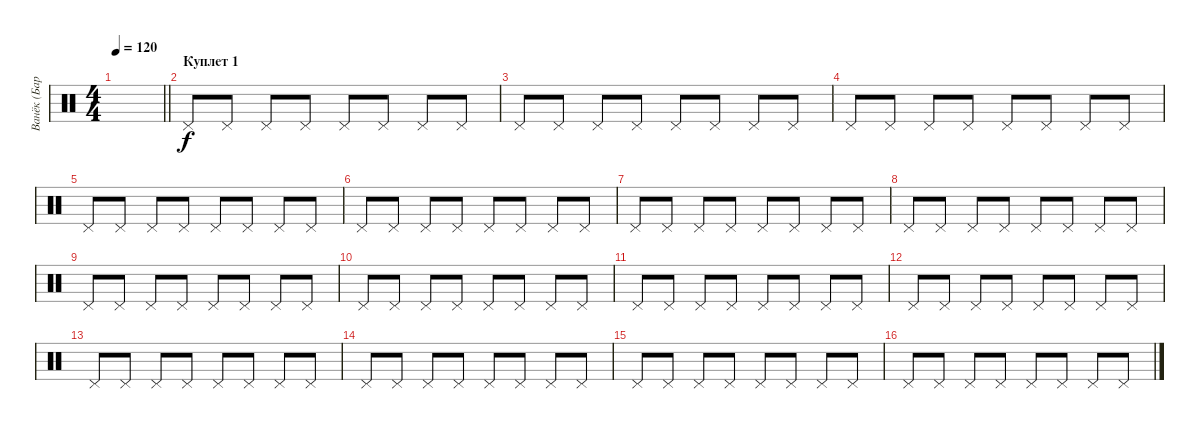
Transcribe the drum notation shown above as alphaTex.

\track ("Ванёк (Барабанщик)" "Ванёк (Бар") {instrument percussion}
\staff {score}
\articulation defaults
\ts (4 4)
\tempo 120
\clef neutral
\barLineRight lightlight
\ks c
|
\section ("" "Куплет 1")
"Pedal Hi-Hat (hit)".8 "Pedal Hi-Hat (hit)".8 "Pedal Hi-Hat (hit)".8 "Pedal Hi-Hat (hit)".8 "Pedal Hi-Hat (hit)".8 "Pedal Hi-Hat (hit)".8 "Pedal Hi-Hat (hit)".8 "Pedal Hi-Hat (hit)".8 |
"Pedal Hi-Hat (hit)".8 "Pedal Hi-Hat (hit)".8 "Pedal Hi-Hat (hit)".8 "Pedal Hi-Hat (hit)".8 "Pedal Hi-Hat (hit)".8 "Pedal Hi-Hat (hit)".8 "Pedal Hi-Hat (hit)".8 "Pedal Hi-Hat (hit)".8 |
"Pedal Hi-Hat (hit)".8 "Pedal Hi-Hat (hit)".8 "Pedal Hi-Hat (hit)".8 "Pedal Hi-Hat (hit)".8 "Pedal Hi-Hat (hit)".8 "Pedal Hi-Hat (hit)".8 "Pedal Hi-Hat (hit)".8 "Pedal Hi-Hat (hit)".8 |
"Pedal Hi-Hat (hit)".8 "Pedal Hi-Hat (hit)".8 "Pedal Hi-Hat (hit)".8 "Pedal Hi-Hat (hit)".8 "Pedal Hi-Hat (hit)".8 "Pedal Hi-Hat (hit)".8 "Pedal Hi-Hat (hit)".8 "Pedal Hi-Hat (hit)".8 |
"Pedal Hi-Hat (hit)".8 "Pedal Hi-Hat (hit)".8 "Pedal Hi-Hat (hit)".8 "Pedal Hi-Hat (hit)".8 "Pedal Hi-Hat (hit)".8 "Pedal Hi-Hat (hit)".8 "Pedal Hi-Hat (hit)".8 "Pedal Hi-Hat (hit)".8 |
"Pedal Hi-Hat (hit)".8 "Pedal Hi-Hat (hit)".8 "Pedal Hi-Hat (hit)".8 "Pedal Hi-Hat (hit)".8 "Pedal Hi-Hat (hit)".8 "Pedal Hi-Hat (hit)".8 "Pedal Hi-Hat (hit)".8 "Pedal Hi-Hat (hit)".8 |
"Pedal Hi-Hat (hit)".8 "Pedal Hi-Hat (hit)".8 "Pedal Hi-Hat (hit)".8 "Pedal Hi-Hat (hit)".8 "Pedal Hi-Hat (hit)".8 "Pedal Hi-Hat (hit)".8 "Pedal Hi-Hat (hit)".8 "Pedal Hi-Hat (hit)".8 |
"Pedal Hi-Hat (hit)".8 "Pedal Hi-Hat (hit)".8 "Pedal Hi-Hat (hit)".8 "Pedal Hi-Hat (hit)".8 "Pedal Hi-Hat (hit)".8 "Pedal Hi-Hat (hit)".8 "Pedal Hi-Hat (hit)".8 "Pedal Hi-Hat (hit)".8 |
"Pedal Hi-Hat (hit)".8 "Pedal Hi-Hat (hit)".8 "Pedal Hi-Hat (hit)".8 "Pedal Hi-Hat (hit)".8 "Pedal Hi-Hat (hit)".8 "Pedal Hi-Hat (hit)".8 "Pedal Hi-Hat (hit)".8 "Pedal Hi-Hat (hit)".8 |
"Pedal Hi-Hat (hit)".8 "Pedal Hi-Hat (hit)".8 "Pedal Hi-Hat (hit)".8 "Pedal Hi-Hat (hit)".8 "Pedal Hi-Hat (hit)".8 "Pedal Hi-Hat (hit)".8 "Pedal Hi-Hat (hit)".8 "Pedal Hi-Hat (hit)".8 |
"Pedal Hi-Hat (hit)".8 "Pedal Hi-Hat (hit)".8 "Pedal Hi-Hat (hit)".8 "Pedal Hi-Hat (hit)".8 "Pedal Hi-Hat (hit)".8 "Pedal Hi-Hat (hit)".8 "Pedal Hi-Hat (hit)".8 "Pedal Hi-Hat (hit)".8 |
"Pedal Hi-Hat (hit)".8 "Pedal Hi-Hat (hit)".8 "Pedal Hi-Hat (hit)".8 "Pedal Hi-Hat (hit)".8 "Pedal Hi-Hat (hit)".8 "Pedal Hi-Hat (hit)".8 "Pedal Hi-Hat (hit)".8 "Pedal Hi-Hat (hit)".8 |
"Pedal Hi-Hat (hit)".8 "Pedal Hi-Hat (hit)".8 "Pedal Hi-Hat (hit)".8 "Pedal Hi-Hat (hit)".8 "Pedal Hi-Hat (hit)".8 "Pedal Hi-Hat (hit)".8 "Pedal Hi-Hat (hit)".8 "Pedal Hi-Hat (hit)".8 |
"Pedal Hi-Hat (hit)".8 "Pedal Hi-Hat (hit)".8 "Pedal Hi-Hat (hit)".8 "Pedal Hi-Hat (hit)".8 "Pedal Hi-Hat (hit)".8 "Pedal Hi-Hat (hit)".8 "Pedal Hi-Hat (hit)".8 "Pedal Hi-Hat (hit)".8 |
"Pedal Hi-Hat (hit)".8 "Pedal Hi-Hat (hit)".8 "Pedal Hi-Hat (hit)".8 "Pedal Hi-Hat (hit)".8 "Pedal Hi-Hat (hit)".8 "Pedal Hi-Hat (hit)".8 "Pedal Hi-Hat (hit)".8 "Pedal Hi-Hat (hit)".8
